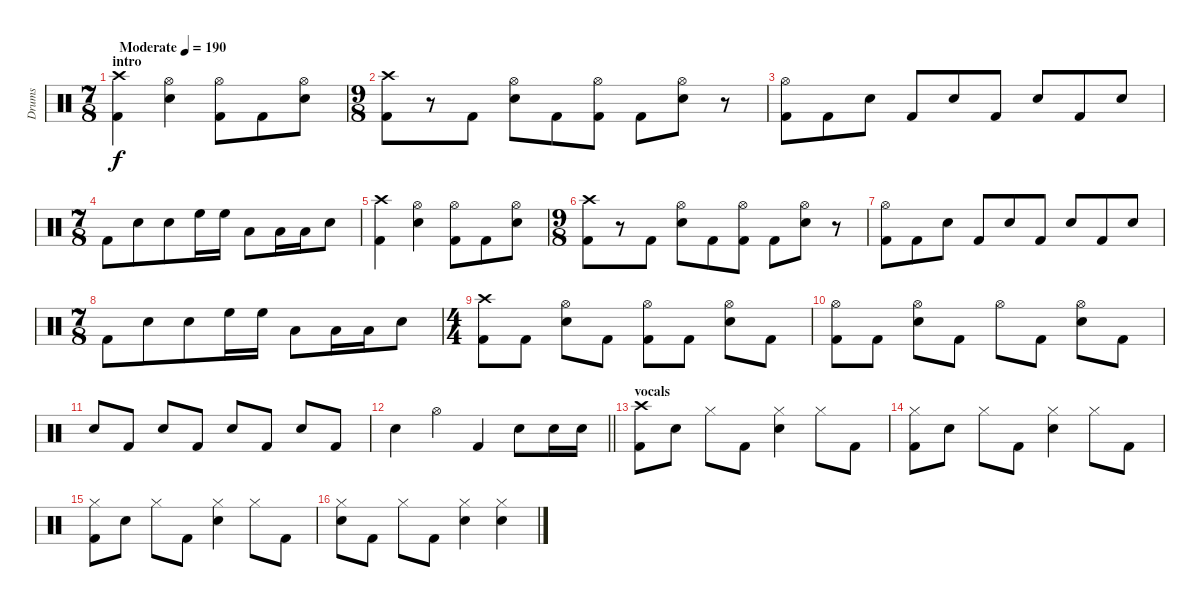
\track ("Drums" "Drums") {instrument percussion}
\staff {score}
\articulation defaults
\ts (7 8)
\section ("" "intro")
\tempo (190 "Moderate")
\clef neutral
\ks c
("Crash high (hit)" "Kick (hit) 2").4{dy f} ("Hi-Hat (open)" "Snare (hit) 2").4 ("Hi-Hat (open)" "Kick (hit) 2").8 "Kick (hit) 2".8 ("Hi-Hat (open)" "Snare (hit) 2").8 |
\ts (9 8)
("Crash high (hit)" "Kick (hit) 2").8 r.8 "Kick (hit) 2".8 ("Hi-Hat (open)" "Snare (hit) 2").8 "Kick (hit) 2".8 ("Hi-Hat (open)" "Kick (hit) 2").8 "Kick (hit) 2".8 ("Hi-Hat (open)" "Snare (hit) 2").8 r.8 |
("Hi-Hat (open)" "Kick (hit) 2").8 "Kick (hit) 2".8 "Snare (hit) 2".8 "Kick (hit) 2".8 "Snare (hit) 2".8 "Kick (hit) 2".8 "Snare (hit) 2".8 "Kick (hit) 2".8 "Snare (hit) 2".8 |
\ts (7 8)
"Kick (hit) 2".8 "Snare (hit) 2".8 "Snare (hit) 2".8 "High Floor Tom (hit)".16 "High Floor Tom (hit)".16 "Low Tom (hit)".8 "Low Tom (hit)".16 "Low Tom (hit)".16 "Snare (hit) 2".8 |
("Crash high (hit)" "Kick (hit) 2").4 ("Hi-Hat (open)" "Snare (hit) 2").4 ("Hi-Hat (open)" "Kick (hit) 2").8 "Kick (hit) 2".8 ("Hi-Hat (open)" "Snare (hit) 2").8 |
\ts (9 8)
("Crash high (hit)" "Kick (hit) 2").8 r.8 "Kick (hit) 2".8 ("Hi-Hat (open)" "Snare (hit) 2").8 "Kick (hit) 2".8 ("Hi-Hat (open)" "Kick (hit) 2").8 "Kick (hit) 2".8 ("Hi-Hat (open)" "Snare (hit) 2").8 r.8 |
("Hi-Hat (open)" "Kick (hit) 2").8 "Kick (hit) 2".8 "Snare (hit) 2".8 "Kick (hit) 2".8 "Snare (hit) 2".8 "Kick (hit) 2".8 "Snare (hit) 2".8 "Kick (hit) 2".8 "Snare (hit) 2".8 |
\ts (7 8)
"Kick (hit) 2".8 "Snare (hit) 2".8 "Snare (hit) 2".8 "High Floor Tom (hit)".16 "High Floor Tom (hit)".16 "Low Tom (hit)".8 "Low Tom (hit)".16 "Low Tom (hit)".16 "Snare (hit) 2".8 |
\ts (4 4)
("Crash high (hit)" "Kick (hit) 2").8 "Kick (hit) 2".8 ("Hi-Hat (open)" "Snare (hit) 2").8 "Kick (hit) 2".8 ("Hi-Hat (open)" "Kick (hit) 2").8 "Kick (hit) 2".8 ("Hi-Hat (open)" "Snare (hit) 2").8 "Kick (hit) 2".8 |
("Hi-Hat (open)" "Kick (hit) 2").8 "Kick (hit) 2".8 ("Hi-Hat (open)" "Snare (hit) 2").8 "Kick (hit) 2".8 "Hi-Hat (open)".8 "Kick (hit) 2".8 ("Hi-Hat (open)" "Snare (hit) 2").8 "Kick (hit) 2".8 |
"Snare (hit) 2".8 "Kick (hit) 2".8 "Snare (hit) 2".8 "Kick (hit) 2".8 "Snare (hit) 2".8 "Kick (hit) 2".8 "Snare (hit) 2".8 "Kick (hit) 2".8 |
\barLineRight lightlight "Snare (hit) 2".4 "Hi-Hat (open)".4 "Kick (hit) 2".4 "Snare (hit) 2".8 "Snare (hit) 2".16 "Snare (hit) 2".16
|
\section ("" "vocals")
("Crash high (hit)" "Kick (hit) 2").8 "Snare (hit) 2".8 "Hi-Hat (closed)".8 "Kick (hit) 2".8 ("Hi-Hat (closed)" "Snare (hit) 2").4 "Hi-Hat (closed)".8 "Kick (hit) 2".8 |
("Hi-Hat (closed)" "Kick (hit) 2").8 "Snare (hit) 2".8 "Hi-Hat (closed)".8 "Kick (hit) 2".8 ("Hi-Hat (closed)" "Snare (hit) 2").4 "Hi-Hat (closed)".8 "Kick (hit) 2".8 |
("Hi-Hat (closed)" "Kick (hit) 2").8 "Snare (hit) 2".8 "Hi-Hat (closed)".8 "Kick (hit) 2".8 ("Hi-Hat (closed)" "Snare (hit) 2").4 "Hi-Hat (closed)".8 "Kick (hit) 2".8 |
("Hi-Hat (closed)" "Snare (hit) 2").8 "Kick (hit) 2".8 "Hi-Hat (closed)".8 "Kick (hit) 2".8 ("Hi-Hat (closed)" "Snare (hit) 2").4 ("Hi-Hat (closed)" "Snare (hit) 2").4
